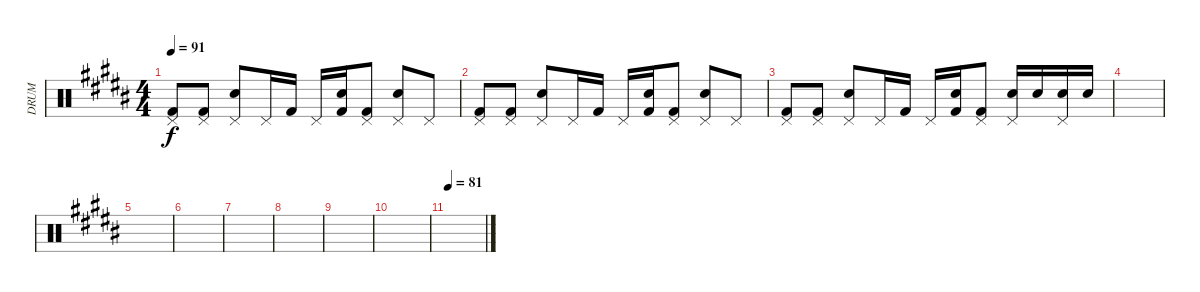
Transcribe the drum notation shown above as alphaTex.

\track ("DRUM" "DRUM") {instrument percussion}
\staff {score}
\articulation defaults
\ts (4 4)
\tempo 91
\clef neutral
\ks b
("Pedal Hi-Hat (hit)" "Kick (hit) 2").8{dy f} ("Pedal Hi-Hat (hit)" "Kick (hit) 2").8 ("Pedal Hi-Hat (hit)" "Electric Snare (hit)").8 "Pedal Hi-Hat (hit)".16 "Kick (hit) 2".16 "Pedal Hi-Hat (hit)".16 ("Electric Snare (hit)" "Kick (hit) 2").16 ("Pedal Hi-Hat (hit)" "Kick (hit) 2").8 ("Pedal Hi-Hat (hit)" "Electric Snare (hit)").8 "Pedal Hi-Hat (hit)".8 |
("Pedal Hi-Hat (hit)" "Kick (hit) 2").8 ("Pedal Hi-Hat (hit)" "Kick (hit) 2").8 ("Pedal Hi-Hat (hit)" "Electric Snare (hit)").8 "Pedal Hi-Hat (hit)".16 "Kick (hit) 2".16 "Pedal Hi-Hat (hit)".16 ("Electric Snare (hit)" "Kick (hit) 2").16 ("Pedal Hi-Hat (hit)" "Kick (hit) 2").8 ("Pedal Hi-Hat (hit)" "Electric Snare (hit)").8 "Pedal Hi-Hat (hit)".8 |
("Pedal Hi-Hat (hit)" "Kick (hit) 2").8 ("Pedal Hi-Hat (hit)" "Kick (hit) 2").8 ("Pedal Hi-Hat (hit)" "Electric Snare (hit)").8 "Pedal Hi-Hat (hit)".16 "Kick (hit) 2".16 "Pedal Hi-Hat (hit)".16 ("Electric Snare (hit)" "Kick (hit) 2").16 ("Pedal Hi-Hat (hit)" "Kick (hit) 2").8 ("Pedal Hi-Hat (hit)" "Electric Snare (hit)").16 "Electric Snare (hit)".16 ("Pedal Hi-Hat (hit)" "Electric Snare (hit)").16 "Electric Snare (hit)".16 |
|
|
|
|
|
|
|
\tempo 81
